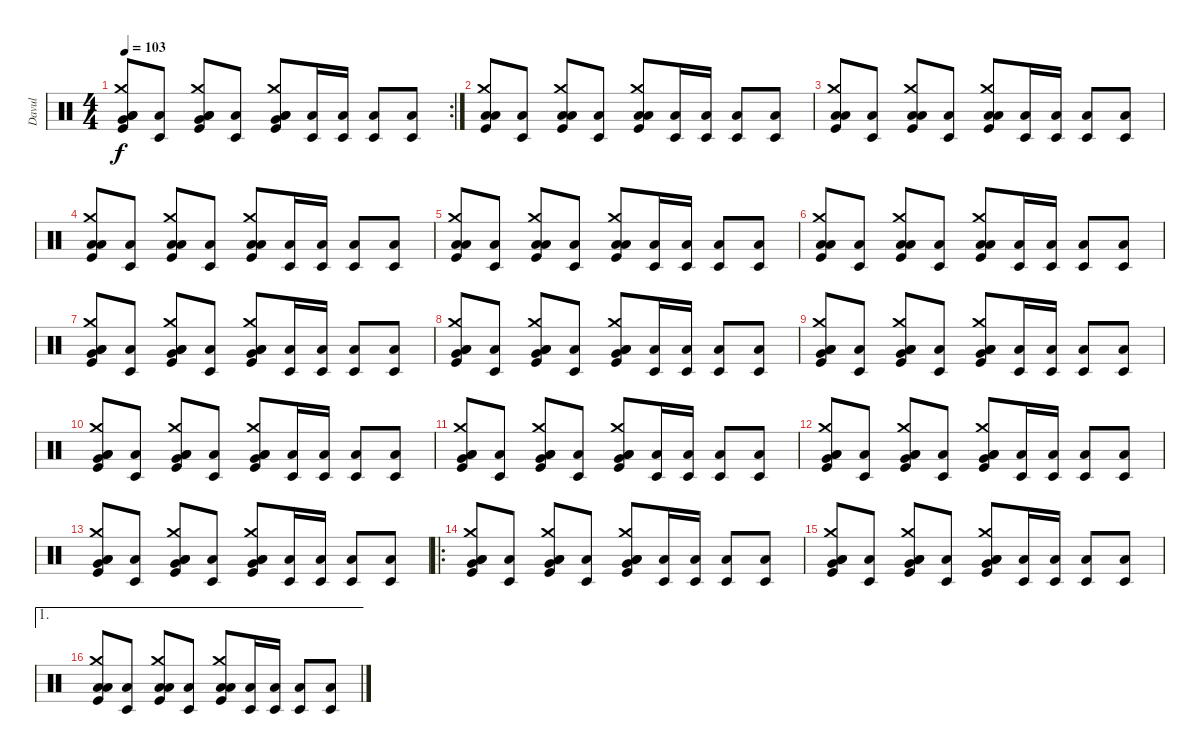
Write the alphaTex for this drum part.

\track ("Davul" "Davul") {instrument percussion}
\staff {score}
\articulation defaults
\rc 2
\ts (4 4)
\tempo 103
\clef neutral
\ks c
("Kick (hit)" "Low Tom (hit)" "Low Floor Tom (hit)" "Very Low Tom (hit)" "Crash medium (hit)").8{dy f} ("Timbale low (hit)" "Low Floor Tom (hit)").8 ("Kick (hit)" "Low Tom (hit)" "Low Floor Tom (hit)" "Very Low Tom (hit)" "Crash medium (hit)").8 ("Timbale low (hit)" "Low Floor Tom (hit)").8 ("Kick (hit)" "Low Tom (hit)" "Low Floor Tom (hit)" "Very Low Tom (hit)" "Crash medium (hit)").8 ("Timbale low (hit)" "Low Floor Tom (hit)").16 ("Timbale low (hit)" "Low Floor Tom (hit)").16 ("Timbale low (hit)" "Low Floor Tom (hit)").8 ("Timbale low (hit)" "Low Floor Tom (hit)").8 |
("Kick (hit)" "Low Tom (hit)" "Low Floor Tom (hit)" "Crash medium (hit)").8 ("Timbale low (hit)" "Low Floor Tom (hit)").8 ("Kick (hit)" "Low Tom (hit)" "Low Floor Tom (hit)" "Crash medium (hit)").8 ("Timbale low (hit)" "Low Floor Tom (hit)").8 ("Kick (hit)" "Low Tom (hit)" "Low Floor Tom (hit)" "Crash medium (hit)").8 ("Timbale low (hit)" "Low Floor Tom (hit)").16 ("Timbale low (hit)" "Low Floor Tom (hit)").16 ("Timbale low (hit)" "Low Floor Tom (hit)").8 ("Timbale low (hit)" "Low Floor Tom (hit)").8 |
("Kick (hit)" "Low Tom (hit)" "Low Floor Tom (hit)" "Crash medium (hit)").8 ("Timbale low (hit)" "Low Floor Tom (hit)").8 ("Kick (hit)" "Low Tom (hit)" "Low Floor Tom (hit)" "Crash medium (hit)").8 ("Timbale low (hit)" "Low Floor Tom (hit)").8 ("Kick (hit)" "Low Tom (hit)" "Low Floor Tom (hit)" "Crash medium (hit)").8 ("Timbale low (hit)" "Low Floor Tom (hit)").16 ("Timbale low (hit)" "Low Floor Tom (hit)").16 ("Timbale low (hit)" "Low Floor Tom (hit)").8 ("Timbale low (hit)" "Low Floor Tom (hit)").8 |
("Kick (hit)" "Low Tom (hit)" "Low Floor Tom (hit)" "Crash medium (hit)").8 ("Timbale low (hit)" "Low Floor Tom (hit)").8 ("Kick (hit)" "Low Tom (hit)" "Low Floor Tom (hit)" "Crash medium (hit)").8 ("Timbale low (hit)" "Low Floor Tom (hit)").8 ("Kick (hit)" "Low Tom (hit)" "Low Floor Tom (hit)" "Crash medium (hit)").8 ("Timbale low (hit)" "Low Floor Tom (hit)").16 ("Timbale low (hit)" "Low Floor Tom (hit)").16 ("Timbale low (hit)" "Low Floor Tom (hit)").8 ("Timbale low (hit)" "Low Floor Tom (hit)").8 |
("Kick (hit)" "Low Tom (hit)" "Low Floor Tom (hit)" "Crash medium (hit)").8 ("Timbale low (hit)" "Low Floor Tom (hit)").8 ("Kick (hit)" "Low Tom (hit)" "Low Floor Tom (hit)" "Crash medium (hit)").8 ("Timbale low (hit)" "Low Floor Tom (hit)").8 ("Kick (hit)" "Low Tom (hit)" "Low Floor Tom (hit)" "Crash medium (hit)").8 ("Timbale low (hit)" "Low Floor Tom (hit)").16 ("Timbale low (hit)" "Low Floor Tom (hit)").16 ("Timbale low (hit)" "Low Floor Tom (hit)").8 ("Timbale low (hit)" "Low Floor Tom (hit)").8 |
("Kick (hit)" "Low Tom (hit)" "Low Floor Tom (hit)" "Crash medium (hit)").8 ("Timbale low (hit)" "Low Floor Tom (hit)").8 ("Kick (hit)" "Low Tom (hit)" "Low Floor Tom (hit)" "Crash medium (hit)").8 ("Timbale low (hit)" "Low Floor Tom (hit)").8 ("Kick (hit)" "Low Tom (hit)" "Low Floor Tom (hit)" "Crash medium (hit)").8 ("Timbale low (hit)" "Low Floor Tom (hit)").16 ("Timbale low (hit)" "Low Floor Tom (hit)").16 ("Timbale low (hit)" "Low Floor Tom (hit)").8 ("Timbale low (hit)" "Low Floor Tom (hit)").8 |
("Kick (hit)" "Low Tom (hit)" "Low Floor Tom (hit)" "Very Low Tom (hit)" "Crash medium (hit)").8 ("Timbale low (hit)" "Low Floor Tom (hit)").8 ("Kick (hit)" "Low Tom (hit)" "Low Floor Tom (hit)" "Very Low Tom (hit)" "Crash medium (hit)").8 ("Timbale low (hit)" "Low Floor Tom (hit)").8 ("Kick (hit)" "Low Tom (hit)" "Low Floor Tom (hit)" "Very Low Tom (hit)" "Crash medium (hit)").8 ("Timbale low (hit)" "Low Floor Tom (hit)").16 ("Timbale low (hit)" "Low Floor Tom (hit)").16 ("Timbale low (hit)" "Low Floor Tom (hit)").8 ("Timbale low (hit)" "Low Floor Tom (hit)").8 |
("Kick (hit)" "Low Tom (hit)" "Low Floor Tom (hit)" "Very Low Tom (hit)" "Crash medium (hit)").8 ("Timbale low (hit)" "Low Floor Tom (hit)").8 ("Kick (hit)" "Low Tom (hit)" "Low Floor Tom (hit)" "Very Low Tom (hit)" "Crash medium (hit)").8 ("Timbale low (hit)" "Low Floor Tom (hit)").8 ("Kick (hit)" "Low Tom (hit)" "Low Floor Tom (hit)" "Very Low Tom (hit)" "Crash medium (hit)").8 ("Timbale low (hit)" "Low Floor Tom (hit)").16 ("Timbale low (hit)" "Low Floor Tom (hit)").16 ("Timbale low (hit)" "Low Floor Tom (hit)").8 ("Timbale low (hit)" "Low Floor Tom (hit)").8 |
("Kick (hit)" "Low Tom (hit)" "Low Floor Tom (hit)" "Very Low Tom (hit)" "Crash medium (hit)").8 ("Timbale low (hit)" "Low Floor Tom (hit)").8 ("Kick (hit)" "Low Tom (hit)" "Low Floor Tom (hit)" "Very Low Tom (hit)" "Crash medium (hit)").8 ("Timbale low (hit)" "Low Floor Tom (hit)").8 ("Kick (hit)" "Low Tom (hit)" "Low Floor Tom (hit)" "Very Low Tom (hit)" "Crash medium (hit)").8 ("Timbale low (hit)" "Low Floor Tom (hit)").16 ("Timbale low (hit)" "Low Floor Tom (hit)").16 ("Timbale low (hit)" "Low Floor Tom (hit)").8 ("Timbale low (hit)" "Low Floor Tom (hit)").8 |
("Kick (hit)" "Low Tom (hit)" "Low Floor Tom (hit)" "Very Low Tom (hit)" "Crash medium (hit)").8 ("Timbale low (hit)" "Low Floor Tom (hit)").8 ("Kick (hit)" "Low Tom (hit)" "Low Floor Tom (hit)" "Very Low Tom (hit)" "Crash medium (hit)").8 ("Timbale low (hit)" "Low Floor Tom (hit)").8 ("Kick (hit)" "Low Tom (hit)" "Low Floor Tom (hit)" "Very Low Tom (hit)" "Crash medium (hit)").8 ("Timbale low (hit)" "Low Floor Tom (hit)").16 ("Timbale low (hit)" "Low Floor Tom (hit)").16 ("Timbale low (hit)" "Low Floor Tom (hit)").8 ("Timbale low (hit)" "Low Floor Tom (hit)").8 |
("Kick (hit)" "Low Tom (hit)" "Low Floor Tom (hit)" "Very Low Tom (hit)" "Crash medium (hit)").8 ("Timbale low (hit)" "Low Floor Tom (hit)").8 ("Kick (hit)" "Low Tom (hit)" "Low Floor Tom (hit)" "Very Low Tom (hit)" "Crash medium (hit)").8 ("Timbale low (hit)" "Low Floor Tom (hit)").8 ("Kick (hit)" "Low Tom (hit)" "Low Floor Tom (hit)" "Very Low Tom (hit)" "Crash medium (hit)").8 ("Timbale low (hit)" "Low Floor Tom (hit)").16 ("Timbale low (hit)" "Low Floor Tom (hit)").16 ("Timbale low (hit)" "Low Floor Tom (hit)").8 ("Timbale low (hit)" "Low Floor Tom (hit)").8 |
("Kick (hit)" "Low Tom (hit)" "Low Floor Tom (hit)" "Very Low Tom (hit)" "Crash medium (hit)").8 ("Timbale low (hit)" "Low Floor Tom (hit)").8 ("Kick (hit)" "Low Tom (hit)" "Low Floor Tom (hit)" "Very Low Tom (hit)" "Crash medium (hit)").8 ("Timbale low (hit)" "Low Floor Tom (hit)").8 ("Kick (hit)" "Low Tom (hit)" "Low Floor Tom (hit)" "Very Low Tom (hit)" "Crash medium (hit)").8 ("Timbale low (hit)" "Low Floor Tom (hit)").16 ("Timbale low (hit)" "Low Floor Tom (hit)").16 ("Timbale low (hit)" "Low Floor Tom (hit)").8 ("Timbale low (hit)" "Low Floor Tom (hit)").8 |
("Kick (hit)" "Low Tom (hit)" "Low Floor Tom (hit)" "Very Low Tom (hit)" "Crash medium (hit)").8 ("Timbale low (hit)" "Low Floor Tom (hit)").8 ("Kick (hit)" "Low Tom (hit)" "Low Floor Tom (hit)" "Very Low Tom (hit)" "Crash medium (hit)").8 ("Timbale low (hit)" "Low Floor Tom (hit)").8 ("Kick (hit)" "Low Tom (hit)" "Low Floor Tom (hit)" "Very Low Tom (hit)" "Crash medium (hit)").8 ("Timbale low (hit)" "Low Floor Tom (hit)").16 ("Timbale low (hit)" "Low Floor Tom (hit)").16 ("Timbale low (hit)" "Low Floor Tom (hit)").8 ("Timbale low (hit)" "Low Floor Tom (hit)").8 |
\ro
("Kick (hit)" "Low Tom (hit)" "Low Floor Tom (hit)" "Very Low Tom (hit)" "Crash medium (hit)").8 ("Timbale low (hit)" "Low Floor Tom (hit)").8 ("Kick (hit)" "Low Tom (hit)" "Low Floor Tom (hit)" "Very Low Tom (hit)" "Crash medium (hit)").8 ("Timbale low (hit)" "Low Floor Tom (hit)").8 ("Kick (hit)" "Low Tom (hit)" "Low Floor Tom (hit)" "Very Low Tom (hit)" "Crash medium (hit)").8 ("Timbale low (hit)" "Low Floor Tom (hit)").16 ("Timbale low (hit)" "Low Floor Tom (hit)").16 ("Timbale low (hit)" "Low Floor Tom (hit)").8 ("Timbale low (hit)" "Low Floor Tom (hit)").8 |
("Kick (hit)" "Low Tom (hit)" "Low Floor Tom (hit)" "Very Low Tom (hit)" "Crash medium (hit)").8 ("Timbale low (hit)" "Low Floor Tom (hit)").8 ("Kick (hit)" "Low Tom (hit)" "Low Floor Tom (hit)" "Very Low Tom (hit)" "Crash medium (hit)").8 ("Timbale low (hit)" "Low Floor Tom (hit)").8 ("Kick (hit)" "Low Tom (hit)" "Low Floor Tom (hit)" "Very Low Tom (hit)" "Crash medium (hit)").8 ("Timbale low (hit)" "Low Floor Tom (hit)").16 ("Timbale low (hit)" "Low Floor Tom (hit)").16 ("Timbale low (hit)" "Low Floor Tom (hit)").8 ("Timbale low (hit)" "Low Floor Tom (hit)").8 |
\ae 1
("Kick (hit)" "Low Tom (hit)" "Low Floor Tom (hit)" "Crash medium (hit)").8 ("Timbale low (hit)" "Low Floor Tom (hit)").8 ("Kick (hit)" "Low Tom (hit)" "Low Floor Tom (hit)" "Crash medium (hit)").8 ("Timbale low (hit)" "Low Floor Tom (hit)").8 ("Kick (hit)" "Low Tom (hit)" "Low Floor Tom (hit)" "Crash medium (hit)").8 ("Timbale low (hit)" "Low Floor Tom (hit)").16 ("Timbale low (hit)" "Low Floor Tom (hit)").16 ("Timbale low (hit)" "Low Floor Tom (hit)").8 ("Timbale low (hit)" "Low Floor Tom (hit)").8
